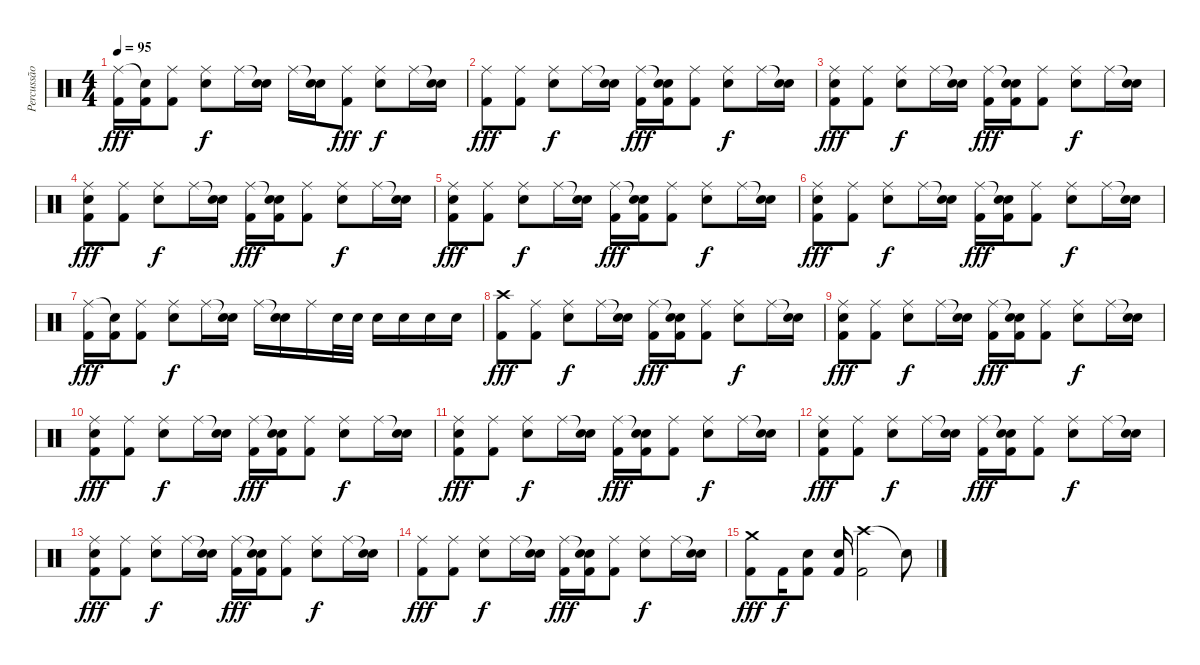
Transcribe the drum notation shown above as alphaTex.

\track ("Percussão" "Percussão") {instrument percussion}
\staff {score}
\articulation defaults
\ts (4 4)
\tempo 95
\clef neutral
\ks c
("Ride (middle)" "Kick (hit) 2").16{dy fff} ("Snare (hit)"{t} "Kick (hit) 2").16 ("Ride (middle)" "Kick (hit) 2").8 ("Ride (middle)" "Snare (hit) 2").8{dy f} "Ride (middle)".16 ("Snare (hit)"{t} "Snare (hit) 2").16 "Ride (middle)".16 ("Snare (hit)"{t} "Snare (hit) 2").16 ("Ride (middle)" "Kick (hit) 2").8{dy fff} ("Ride (middle)" "Snare (hit) 2").8{dy f} "Ride (middle)".16 ("Snare (hit)"{t} "Snare (hit) 2").16 |
("Ride (middle)" "Kick (hit) 2").8{dy fff} ("Ride (middle)" "Kick (hit) 2").8 ("Ride (middle)" "Snare (hit) 2").8{dy f} "Ride (middle)".16 ("Snare (hit)"{t} "Snare (hit) 2").16 ("Ride (middle)" "Kick (hit) 2").16{dy fff} ("Snare (hit)"{t} "Snare (hit) 2" "Kick (hit) 2").16 ("Ride (middle)" "Kick (hit) 2").8 ("Ride (middle)" "Snare (hit) 2").8{dy f} "Ride (middle)".16 ("Snare (hit)"{t} "Snare (hit) 2").16 |
("Ride (middle)" "Snare (hit) 2" "Kick (hit) 2").8{dy fff} ("Ride (middle)" "Kick (hit) 2").8 ("Ride (middle)" "Snare (hit) 2").8{dy f} "Ride (middle)".16 ("Snare (hit)"{t} "Snare (hit) 2").16 ("Ride (middle)" "Kick (hit) 2").16{dy fff} ("Snare (hit)"{t} "Snare (hit) 2" "Kick (hit) 2").16 ("Ride (middle)" "Kick (hit) 2").8 ("Ride (middle)" "Snare (hit) 2").8{dy f} "Ride (middle)".16 ("Snare (hit)"{t} "Snare (hit) 2").16 |
("Ride (middle)" "Snare (hit) 2" "Kick (hit) 2").8{dy fff} ("Ride (middle)" "Kick (hit) 2").8 ("Ride (middle)" "Snare (hit) 2").8{dy f} "Ride (middle)".16 ("Snare (hit)"{t} "Snare (hit) 2").16 ("Ride (middle)" "Kick (hit) 2").16{dy fff} ("Snare (hit)"{t} "Snare (hit) 2" "Kick (hit) 2").16 ("Ride (middle)" "Kick (hit) 2").8 ("Ride (middle)" "Snare (hit) 2").8{dy f} "Ride (middle)".16 ("Snare (hit)"{t} "Snare (hit) 2").16 |
("Ride (middle)" "Snare (hit) 2" "Kick (hit) 2").8{dy fff} ("Ride (middle)" "Kick (hit) 2").8 ("Ride (middle)" "Snare (hit) 2").8{dy f} "Ride (middle)".16 ("Snare (hit)"{t} "Snare (hit) 2").16 ("Ride (middle)" "Kick (hit) 2").16{dy fff} ("Snare (hit)"{t} "Snare (hit) 2" "Kick (hit) 2").16 ("Ride (middle)" "Kick (hit) 2").8 ("Ride (middle)" "Snare (hit) 2").8{dy f} "Ride (middle)".16 ("Snare (hit)"{t} "Snare (hit) 2").16 |
("Ride (middle)" "Snare (hit) 2" "Kick (hit) 2").8{dy fff} ("Ride (middle)" "Kick (hit) 2").8 ("Ride (middle)" "Snare (hit) 2").8{dy f} "Ride (middle)".16 ("Snare (hit)"{t} "Snare (hit) 2").16 ("Ride (middle)" "Kick (hit) 2").16{dy fff} ("Snare (hit)"{t} "Snare (hit) 2" "Kick (hit) 2").16 ("Ride (middle)" "Kick (hit) 2").8 ("Ride (middle)" "Snare (hit) 2").8{dy f} "Ride (middle)".16 ("Snare (hit)"{t} "Snare (hit) 2").16 |
("Ride (middle)" "Kick (hit) 2").16{dy fff} ("Snare (hit)"{t} "Kick (hit) 2").16 ("Ride (middle)" "Kick (hit) 2").8 ("Ride (middle)" "Snare (hit) 2").8{dy f} "Ride (middle)".16 ("Snare (hit)"{t} "Snare (hit) 2").16 "Ride (middle)".16 ("Snare (hit)"{t} "Snare (hit) 2").16 "Ride (middle)".16 "Snare (hit) 2".32 "Snare (hit) 2".32 "Snare (hit) 2".16 "Snare (hit) 2".16 "Snare (hit) 2".16 "Snare (hit) 2".16 |
("Crash high (hit)" "Kick (hit) 2").8{dy fff} ("Ride (middle)" "Kick (hit) 2").8 ("Ride (middle)" "Snare (hit) 2").8{dy f} "Ride (middle)".16 ("Snare (hit)"{t} "Snare (hit) 2").16 ("Ride (middle)" "Kick (hit) 2").16{dy fff} ("Snare (hit)"{t} "Snare (hit) 2" "Kick (hit) 2").16 ("Ride (middle)" "Kick (hit) 2").8 ("Ride (middle)" "Snare (hit) 2").8{dy f} "Ride (middle)".16 ("Snare (hit)"{t} "Snare (hit) 2").16 |
("Ride (middle)" "Snare (hit) 2" "Kick (hit) 2").8{dy fff} ("Ride (middle)" "Kick (hit) 2").8 ("Ride (middle)" "Snare (hit) 2").8{dy f} "Ride (middle)".16 ("Snare (hit)"{t} "Snare (hit) 2").16 ("Ride (middle)" "Kick (hit) 2").16{dy fff} ("Snare (hit)"{t} "Snare (hit) 2" "Kick (hit) 2").16 ("Ride (middle)" "Kick (hit) 2").8 ("Ride (middle)" "Snare (hit) 2").8{dy f} "Ride (middle)".16 ("Snare (hit)"{t} "Snare (hit) 2").16 |
("Ride (middle)" "Snare (hit) 2" "Kick (hit) 2").8{dy fff} ("Ride (middle)" "Kick (hit) 2").8 ("Ride (middle)" "Snare (hit) 2").8{dy f} "Ride (middle)".16 ("Snare (hit)"{t} "Snare (hit) 2").16 ("Ride (middle)" "Kick (hit) 2").16{dy fff} ("Snare (hit)"{t} "Snare (hit) 2" "Kick (hit) 2").16 ("Ride (middle)" "Kick (hit) 2").8 ("Ride (middle)" "Snare (hit) 2").8{dy f} "Ride (middle)".16 ("Snare (hit)"{t} "Snare (hit) 2").16 |
("Ride (middle)" "Snare (hit) 2" "Kick (hit) 2").8{dy fff} ("Ride (middle)" "Kick (hit) 2").8 ("Ride (middle)" "Snare (hit) 2").8{dy f} "Ride (middle)".16 ("Snare (hit)"{t} "Snare (hit) 2").16 ("Ride (middle)" "Kick (hit) 2").16{dy fff} ("Snare (hit)"{t} "Snare (hit) 2" "Kick (hit) 2").16 ("Ride (middle)" "Kick (hit) 2").8 ("Ride (middle)" "Snare (hit) 2").8{dy f} "Ride (middle)".16 ("Snare (hit)"{t} "Snare (hit) 2").16 |
("Ride (middle)" "Snare (hit) 2" "Kick (hit) 2").8{dy fff} ("Ride (middle)" "Kick (hit) 2").8 ("Ride (middle)" "Snare (hit) 2").8{dy f} "Ride (middle)".16 ("Snare (hit)"{t} "Snare (hit) 2").16 ("Ride (middle)" "Kick (hit) 2").16{dy fff} ("Snare (hit)"{t} "Snare (hit) 2" "Kick (hit) 2").16 ("Ride (middle)" "Kick (hit) 2").8 ("Ride (middle)" "Snare (hit) 2").8{dy f} "Ride (middle)".16 ("Snare (hit)"{t} "Snare (hit) 2").16 |
("Ride (middle)" "Snare (hit) 2" "Kick (hit) 2").8{dy fff} ("Ride (middle)" "Kick (hit) 2").8 ("Ride (middle)" "Snare (hit) 2").8{dy f} "Ride (middle)".16 ("Snare (hit)"{t} "Snare (hit) 2").16 ("Ride (middle)" "Kick (hit) 2").16{dy fff} ("Snare (hit)"{t} "Snare (hit) 2" "Kick (hit) 2").16 ("Ride (middle)" "Kick (hit) 2").8 ("Ride (middle)" "Snare (hit) 2").8{dy f} "Ride (middle)".16 ("Snare (hit)"{t} "Snare (hit) 2").16 |
("Ride (middle)" "Kick (hit) 2").8{dy fff} ("Ride (middle)" "Kick (hit) 2").8 ("Ride (middle)" "Snare (hit) 2").8{dy f} "Ride (middle)".16 ("Snare (hit)"{t} "Snare (hit) 2").16 ("Ride (middle)" "Kick (hit) 2").16{dy fff} ("Snare (hit)"{t} "Snare (hit) 2" "Kick (hit) 2").16 ("Ride (middle)" "Kick (hit) 2").8 ("Ride (middle)" "Snare (hit) 2").8{dy f} "Ride (middle)".16 ("Snare (hit)"{t} "Snare (hit) 2").16 |
("Crash medium (hit)" "Kick (hit) 2").8{dy fff} "Kick (hit) 2".16{dy f} ("Snare (hit) 2" "Kick (hit) 2").8 ("Snare (hit) 2" "Kick (hit) 2").16 ("Crash high (hit)" "Kick (hit) 2").2 "Snare (hit)"{t}.8
